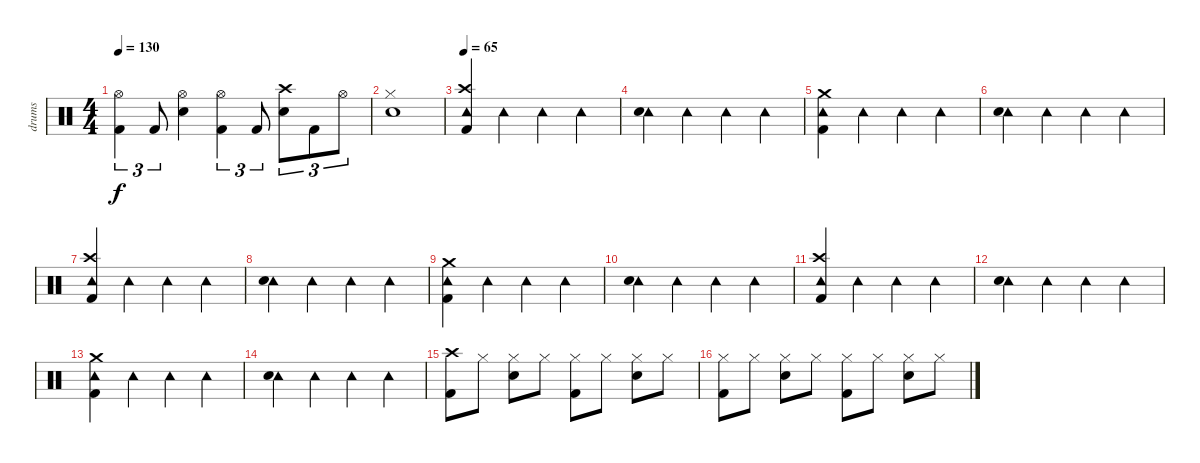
\track ("drums" "drums") {instrument percussion}
\staff {score}
\articulation defaults
\ts (4 4)
\tempo 130
\clef neutral
\ks c
("Hi-Hat (open)" "Kick (hit) 2").4{tu (3 2) dy f} "Kick (hit) 2".8{tu (3 2)} ("Hi-Hat (open)" "Electric Snare (hit)").4 ("Hi-Hat (open)" "Kick (hit) 2").4{tu (3 2)} "Kick (hit) 2".8{tu (3 2)} ("Crash high (hit)" "Electric Snare (hit)").8{tu (3 2)} "Kick (hit) 2".8{tu (3 2)} "Hi-Hat (open)".8{tu (3 2)} |
("Hi-Hat (closed)" "Electric Snare (hit)").1 |
\tempo 65
("Crash high (hit)" "Tambourine (hit)" "Kick (hit) 2").4 "Tambourine (hit)".4 "Tambourine (hit)".4 "Tambourine (hit)".4 |
("Tambourine (hit)" "Electric Snare (hit)").4 "Tambourine (hit)".4 "Tambourine (hit)".4 "Tambourine (hit)".4 |
("Crash medium (hit)" "Tambourine (hit)" "Kick (hit) 2").4 "Tambourine (hit)".4 "Tambourine (hit)".4 "Tambourine (hit)".4 |
("Tambourine (hit)" "Electric Snare (hit)").4 "Tambourine (hit)".4 "Tambourine (hit)".4 "Tambourine (hit)".4 |
("Crash high (hit)" "Tambourine (hit)" "Kick (hit) 2").4 "Tambourine (hit)".4 "Tambourine (hit)".4 "Tambourine (hit)".4 |
("Tambourine (hit)" "Electric Snare (hit)").4 "Tambourine (hit)".4 "Tambourine (hit)".4 "Tambourine (hit)".4 |
("Crash medium (hit)" "Tambourine (hit)" "Kick (hit) 2").4 "Tambourine (hit)".4 "Tambourine (hit)".4 "Tambourine (hit)".4 |
("Tambourine (hit)" "Electric Snare (hit)").4 "Tambourine (hit)".4 "Tambourine (hit)".4 "Tambourine (hit)".4 |
("Crash high (hit)" "Tambourine (hit)" "Kick (hit) 2").4 "Tambourine (hit)".4 "Tambourine (hit)".4 "Tambourine (hit)".4 |
("Tambourine (hit)" "Electric Snare (hit)").4 "Tambourine (hit)".4 "Tambourine (hit)".4 "Tambourine (hit)".4 |
("Crash medium (hit)" "Tambourine (hit)" "Kick (hit) 2").4 "Tambourine (hit)".4 "Tambourine (hit)".4 "Tambourine (hit)".4 |
("Tambourine (hit)" "Electric Snare (hit)").4 "Tambourine (hit)".4 "Tambourine (hit)".4 "Tambourine (hit)".4 |
("Crash high (hit)" "Kick (hit) 2").8 "Hi-Hat (closed)".8 ("Hi-Hat (closed)" "Electric Snare (hit)").8 "Hi-Hat (closed)".8 ("Hi-Hat (closed)" "Kick (hit) 2").8 "Hi-Hat (closed)".8 ("Hi-Hat (closed)" "Electric Snare (hit)").8 "Hi-Hat (closed)".8 |
("Hi-Hat (closed)" "Kick (hit) 2").8 "Hi-Hat (closed)".8 ("Hi-Hat (closed)" "Electric Snare (hit)").8 "Hi-Hat (closed)".8 ("Hi-Hat (closed)" "Kick (hit) 2").8 "Hi-Hat (closed)".8 ("Hi-Hat (closed)" "Electric Snare (hit)").8 "Hi-Hat (closed)".8
